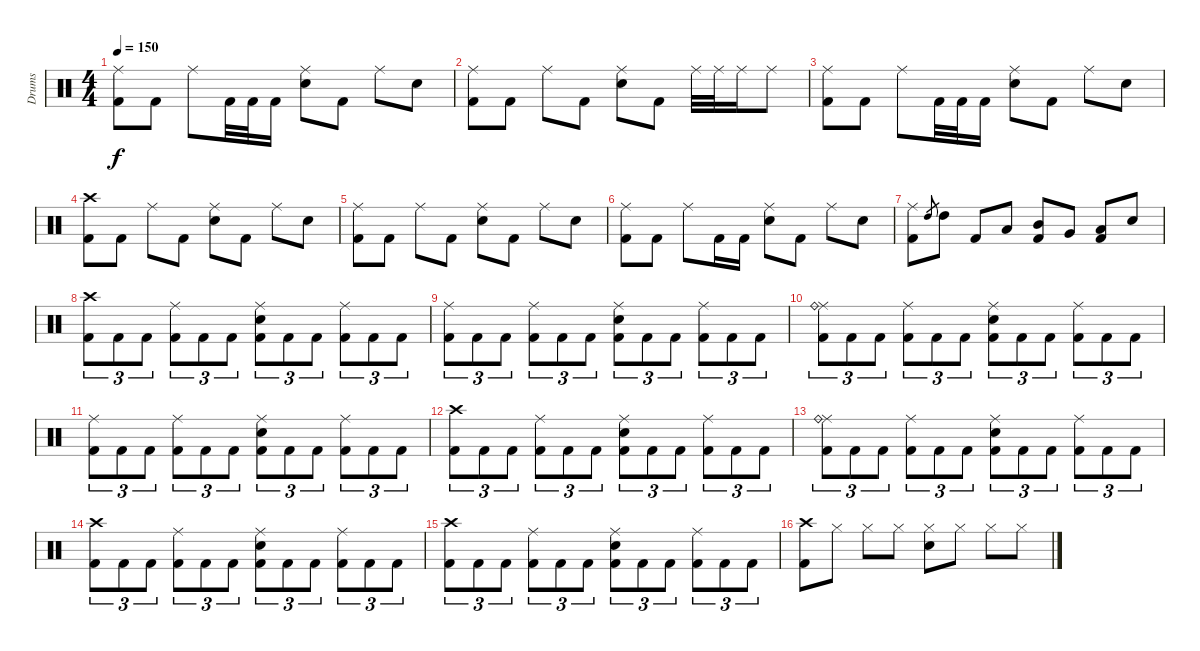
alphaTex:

\track ("Drums" "Drums") {instrument percussion}
\staff {score}
\articulation defaults
\ts (4 4)
\tempo 150
\clef neutral
\ks c
("Ride (middle)" "Kick (hit) 2").8{dy f} "Kick (hit) 2".8 "Ride (middle)".8 "Kick (hit) 2".32 "Kick (hit) 2".32 "Kick (hit) 2".16 ("Ride (middle)" "Electric Snare (hit)").8 "Kick (hit) 2".8 "Ride (middle)".8 "Electric Snare (hit)".8 |
("Ride (middle)" "Kick (hit) 2").8 "Kick (hit) 2".8 "Ride (middle)".8 "Kick (hit) 2".8 ("Ride (middle)" "Electric Snare (hit)").8 "Kick (hit) 2".8 "Ride (middle)".32 "Ride (middle)".32 "Ride (middle)".16 "Ride (middle)".8 |
("Ride (middle)" "Kick (hit) 2").8 "Kick (hit) 2".8 "Ride (middle)".8 "Kick (hit) 2".32 "Kick (hit) 2".32 "Kick (hit) 2".16 ("Ride (middle)" "Electric Snare (hit)").8 "Kick (hit) 2".8 "Ride (middle)".8 "Electric Snare (hit)".8 |
("Crash high (hit)" "Kick (hit) 2").8 "Kick (hit) 2".8 "Ride (middle)".8 "Kick (hit) 2".8 ("Ride (middle)" "Electric Snare (hit)").8 "Kick (hit) 2".8 "Ride (middle)".8 "Electric Snare (hit)".8 |
("Ride (middle)" "Kick (hit) 2").8 "Kick (hit) 2".8 "Ride (middle)".8 "Kick (hit) 2".8 ("Ride (middle)" "Electric Snare (hit)").8 "Kick (hit) 2".8 "Ride (middle)".8 "Electric Snare (hit)".8 |
("Ride (middle)" "Kick (hit) 2").8 "Kick (hit) 2".8 "Ride (middle)".8 "Kick (hit) 2".16 "Kick (hit) 2".16 ("Ride (middle)" "Electric Snare (hit)").8 "Kick (hit) 2".8 "Ride (middle)".8 "Electric Snare (hit)".8 |
("Ride (middle)" "Kick (hit) 2").8 "High Tom (hit)".8{gr} "High Tom (hit)".8 "Kick (hit) 2".8 "Low Tom (hit)".8 ("Mid Tom (hit)" "Kick (hit) 2").8 "Very Low Tom (hit)".8 ("Low Floor Tom (hit)" "Kick (hit) 2").8 "Electric Snare (hit)".8 |
("Crash high (hit)" "Kick (hit) 2").8{tu (3 2)} "Kick (hit) 2".8{tu (3 2)} "Kick (hit) 2".8{tu (3 2)} ("Ride (middle)" "Kick (hit) 2").8{tu (3 2)} "Kick (hit) 2".8{tu (3 2)} "Kick (hit) 2".8{tu (3 2)} ("Ride (middle)" "Electric Snare (hit)" "Kick (hit) 2").8{tu (3 2)} "Kick (hit) 2".8{tu (3 2)} "Kick (hit) 2".8{tu (3 2)} ("Ride (middle)" "Kick (hit) 2").8{tu (3 2)} "Kick (hit) 2".8{tu (3 2)} "Kick (hit) 2".8{tu (3 2)} |
("Ride (middle)" "Kick (hit) 2").8{tu (3 2)} "Kick (hit) 2".8{tu (3 2)} "Kick (hit) 2".8{tu (3 2)} ("Ride (middle)" "Kick (hit) 2").8{tu (3 2)} "Kick (hit) 2".8{tu (3 2)} "Kick (hit) 2".8{tu (3 2)} ("Ride (middle)" "Electric Snare (hit)" "Kick (hit) 2").8{tu (3 2)} "Kick (hit) 2".8{tu (3 2)} "Kick (hit) 2".8{tu (3 2)} ("Ride (middle)" "Kick (hit) 2").8{tu (3 2)} "Kick (hit) 2".8{tu (3 2)} "Kick (hit) 2".8{tu (3 2)} |
("Ride (middle)" "Ride (bell)" "Kick (hit) 2").8{tu (3 2)} "Kick (hit) 2".8{tu (3 2)} "Kick (hit) 2".8{tu (3 2)} ("Ride (middle)" "Kick (hit) 2").8{tu (3 2)} "Kick (hit) 2".8{tu (3 2)} "Kick (hit) 2".8{tu (3 2)} ("Ride (middle)" "Electric Snare (hit)" "Kick (hit) 2").8{tu (3 2)} "Kick (hit) 2".8{tu (3 2)} "Kick (hit) 2".8{tu (3 2)} ("Ride (middle)" "Kick (hit) 2").8{tu (3 2)} "Kick (hit) 2".8{tu (3 2)} "Kick (hit) 2".8{tu (3 2)} |
("Ride (middle)" "Kick (hit) 2").8{tu (3 2)} "Kick (hit) 2".8{tu (3 2)} "Kick (hit) 2".8{tu (3 2)} ("Ride (middle)" "Kick (hit) 2").8{tu (3 2)} "Kick (hit) 2".8{tu (3 2)} "Kick (hit) 2".8{tu (3 2)} ("Ride (middle)" "Electric Snare (hit)" "Kick (hit) 2").8{tu (3 2)} "Kick (hit) 2".8{tu (3 2)} "Kick (hit) 2".8{tu (3 2)} ("Ride (middle)" "Kick (hit) 2").8{tu (3 2)} "Kick (hit) 2".8{tu (3 2)} "Kick (hit) 2".8{tu (3 2)} |
("Crash high (hit)" "Kick (hit) 2").8{tu (3 2)} "Kick (hit) 2".8{tu (3 2)} "Kick (hit) 2".8{tu (3 2)} ("Ride (middle)" "Kick (hit) 2").8{tu (3 2)} "Kick (hit) 2".8{tu (3 2)} "Kick (hit) 2".8{tu (3 2)} ("Ride (middle)" "Electric Snare (hit)" "Kick (hit) 2").8{tu (3 2)} "Kick (hit) 2".8{tu (3 2)} "Kick (hit) 2".8{tu (3 2)} ("Ride (middle)" "Kick (hit) 2").8{tu (3 2)} "Kick (hit) 2".8{tu (3 2)} "Kick (hit) 2".8{tu (3 2)} |
("Ride (middle)" "Ride (bell)" "Kick (hit) 2").8{tu (3 2)} "Kick (hit) 2".8{tu (3 2)} "Kick (hit) 2".8{tu (3 2)} ("Ride (middle)" "Kick (hit) 2").8{tu (3 2)} "Kick (hit) 2".8{tu (3 2)} "Kick (hit) 2".8{tu (3 2)} ("Ride (middle)" "Electric Snare (hit)" "Kick (hit) 2").8{tu (3 2)} "Kick (hit) 2".8{tu (3 2)} "Kick (hit) 2".8{tu (3 2)} ("Ride (middle)" "Kick (hit) 2").8{tu (3 2)} "Kick (hit) 2".8{tu (3 2)} "Kick (hit) 2".8{tu (3 2)} |
("Crash high (hit)" "Kick (hit) 2").8{tu (3 2)} "Kick (hit) 2".8{tu (3 2)} "Kick (hit) 2".8{tu (3 2)} ("Ride (middle)" "Kick (hit) 2").8{tu (3 2)} "Kick (hit) 2".8{tu (3 2)} "Kick (hit) 2".8{tu (3 2)} ("Ride (middle)" "Electric Snare (hit)" "Kick (hit) 2").8{tu (3 2)} "Kick (hit) 2".8{tu (3 2)} "Kick (hit) 2".8{tu (3 2)} ("Ride (middle)" "Kick (hit) 2").8{tu (3 2)} "Kick (hit) 2".8{tu (3 2)} "Kick (hit) 2".8{tu (3 2)} |
("Crash high (hit)" "Kick (hit) 2").8{tu (3 2)} "Kick (hit) 2".8{tu (3 2)} "Kick (hit) 2".8{tu (3 2)} ("Ride (middle)" "Kick (hit) 2").8{tu (3 2)} "Kick (hit) 2".8{tu (3 2)} "Kick (hit) 2".8{tu (3 2)} ("Ride (middle)" "Electric Snare (hit)" "Kick (hit) 2").8{tu (3 2)} "Kick (hit) 2".8{tu (3 2)} "Kick (hit) 2".8{tu (3 2)} ("Ride (middle)" "Kick (hit) 2").8{tu (3 2)} "Kick (hit) 2".8{tu (3 2)} "Kick (hit) 2".8{tu (3 2)} |
("Crash high (hit)" "Kick (hit) 2").8 "Hi-Hat (closed)".8 "Hi-Hat (closed)".8 "Hi-Hat (closed)".8 ("Hi-Hat (closed)" "Electric Snare (hit)").8 "Hi-Hat (closed)".8 "Hi-Hat (closed)".8 "Hi-Hat (closed)".8
